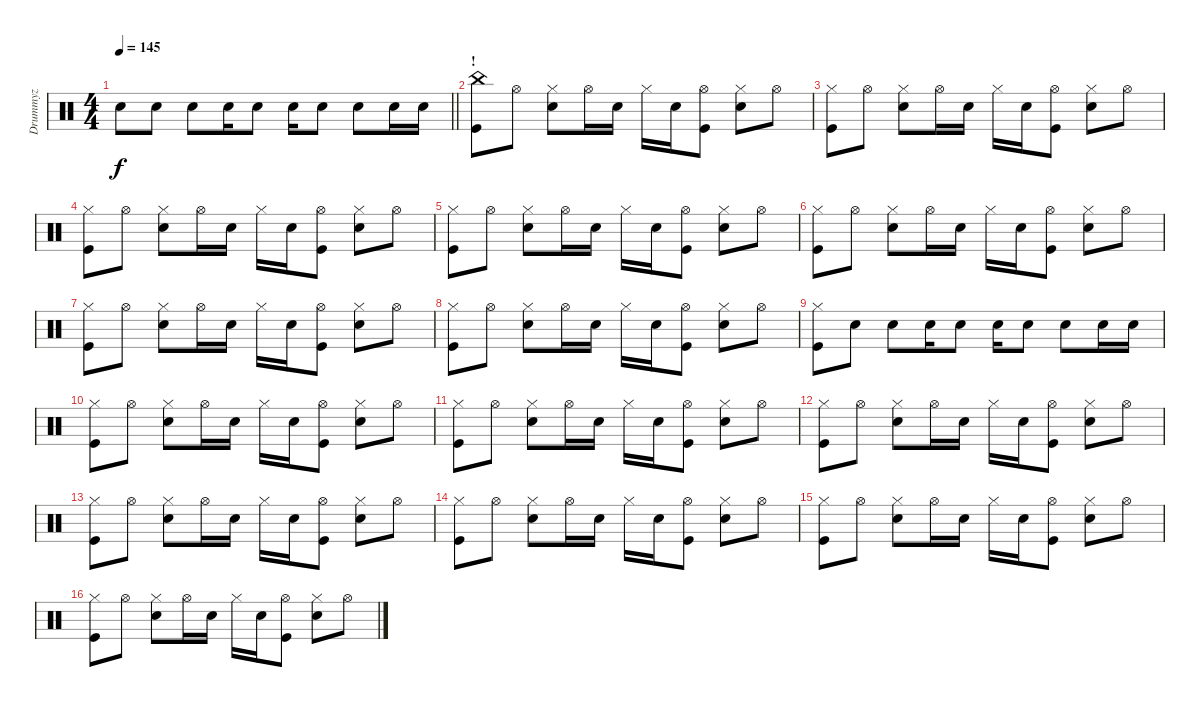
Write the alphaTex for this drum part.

\track ("Drummyz" "Drummyz") {instrument percussion}
\staff {score}
\articulation defaults
\ts (4 4)
\tempo 145
\clef neutral
\barLineRight lightlight
\ks c "Snare (hit) 2".8{dy f} "Snare (hit) 2".8 "Snare (hit) 2".8 "Snare (hit) 2".16 "Snare (hit) 2".8 "Snare (hit) 2".16 "Snare (hit) 2".8 "Snare (hit) 2".8 "Snare (hit) 2".16 "Snare (hit) 2".16
|
\section ("" "!")
("Kick (hit)" "China (hit)").8 "Hi-Hat (open)".8 ("Hi-Hat (closed)" "Snare (hit) 2").8 "Hi-Hat (open)".16 "Snare (hit) 2".16 "Hi-Hat (closed)".16 "Snare (hit) 2".16 ("Kick (hit)" "Hi-Hat (open)").8 ("Snare (hit) 2" "Hi-Hat (closed)").8 "Hi-Hat (open)".8 |
("Kick (hit)" "Hi-Hat (closed)").8 "Hi-Hat (open)".8 ("Hi-Hat (closed)" "Snare (hit) 2").8 "Hi-Hat (open)".16 "Snare (hit) 2".16 "Hi-Hat (closed)".16 "Snare (hit) 2".16 ("Kick (hit)" "Hi-Hat (open)").8 ("Snare (hit) 2" "Hi-Hat (closed)").8 "Hi-Hat (open)".8 |
("Kick (hit)" "Hi-Hat (closed)").8 "Hi-Hat (open)".8 ("Hi-Hat (closed)" "Snare (hit) 2").8 "Hi-Hat (open)".16 "Snare (hit) 2".16 "Hi-Hat (closed)".16 "Snare (hit) 2".16 ("Kick (hit)" "Hi-Hat (open)").8 ("Snare (hit) 2" "Hi-Hat (closed)").8 "Hi-Hat (open)".8 |
("Kick (hit)" "Hi-Hat (closed)").8 "Hi-Hat (open)".8 ("Hi-Hat (closed)" "Snare (hit) 2").8 "Hi-Hat (open)".16 "Snare (hit) 2".16 "Hi-Hat (closed)".16 "Snare (hit) 2".16 ("Kick (hit)" "Hi-Hat (open)").8 ("Snare (hit) 2" "Hi-Hat (closed)").8 "Hi-Hat (open)".8 |
("Kick (hit)" "Hi-Hat (closed)").8 "Hi-Hat (open)".8 ("Hi-Hat (closed)" "Snare (hit) 2").8 "Hi-Hat (open)".16 "Snare (hit) 2".16 "Hi-Hat (closed)".16 "Snare (hit) 2".16 ("Kick (hit)" "Hi-Hat (open)").8 ("Snare (hit) 2" "Hi-Hat (closed)").8 "Hi-Hat (open)".8 |
("Kick (hit)" "Hi-Hat (closed)").8 "Hi-Hat (open)".8 ("Hi-Hat (closed)" "Snare (hit) 2").8 "Hi-Hat (open)".16 "Snare (hit) 2".16 "Hi-Hat (closed)".16 "Snare (hit) 2".16 ("Kick (hit)" "Hi-Hat (open)").8 ("Snare (hit) 2" "Hi-Hat (closed)").8 "Hi-Hat (open)".8 |
("Kick (hit)" "Hi-Hat (closed)").8 "Hi-Hat (open)".8 ("Hi-Hat (closed)" "Snare (hit) 2").8 "Hi-Hat (open)".16 "Snare (hit) 2".16 "Hi-Hat (closed)".16 "Snare (hit) 2".16 ("Kick (hit)" "Hi-Hat (open)").8 ("Snare (hit) 2" "Hi-Hat (closed)").8 "Hi-Hat (open)".8 |
("Kick (hit)" "Hi-Hat (closed)").8 "Snare (hit) 2".8 "Snare (hit) 2".8 "Snare (hit) 2".16 "Snare (hit) 2".8 "Snare (hit) 2".16 "Snare (hit) 2".8 "Snare (hit) 2".8 "Snare (hit) 2".16 "Snare (hit) 2".16 |
("Kick (hit)" "Hi-Hat (closed)").8 "Hi-Hat (open)".8 ("Hi-Hat (closed)" "Snare (hit) 2").8 "Hi-Hat (open)".16 "Snare (hit) 2".16 "Hi-Hat (closed)".16 "Snare (hit) 2".16 ("Kick (hit)" "Hi-Hat (open)").8 ("Snare (hit) 2" "Hi-Hat (closed)").8 "Hi-Hat (open)".8 |
("Kick (hit)" "Hi-Hat (closed)").8 "Hi-Hat (open)".8 ("Hi-Hat (closed)" "Snare (hit) 2").8 "Hi-Hat (open)".16 "Snare (hit) 2".16 "Hi-Hat (closed)".16 "Snare (hit) 2".16 ("Kick (hit)" "Hi-Hat (open)").8 ("Snare (hit) 2" "Hi-Hat (closed)").8 "Hi-Hat (open)".8 |
("Kick (hit)" "Hi-Hat (closed)").8 "Hi-Hat (open)".8 ("Hi-Hat (closed)" "Snare (hit) 2").8 "Hi-Hat (open)".16 "Snare (hit) 2".16 "Hi-Hat (closed)".16 "Snare (hit) 2".16 ("Kick (hit)" "Hi-Hat (open)").8 ("Snare (hit) 2" "Hi-Hat (closed)").8 "Hi-Hat (open)".8 |
("Kick (hit)" "Hi-Hat (closed)").8 "Hi-Hat (open)".8 ("Hi-Hat (closed)" "Snare (hit) 2").8 "Hi-Hat (open)".16 "Snare (hit) 2".16 "Hi-Hat (closed)".16 "Snare (hit) 2".16 ("Kick (hit)" "Hi-Hat (open)").8 ("Snare (hit) 2" "Hi-Hat (closed)").8 "Hi-Hat (open)".8 |
("Kick (hit)" "Hi-Hat (closed)").8 "Hi-Hat (open)".8 ("Hi-Hat (closed)" "Snare (hit) 2").8 "Hi-Hat (open)".16 "Snare (hit) 2".16 "Hi-Hat (closed)".16 "Snare (hit) 2".16 ("Kick (hit)" "Hi-Hat (open)").8 ("Snare (hit) 2" "Hi-Hat (closed)").8 "Hi-Hat (open)".8 |
("Kick (hit)" "Hi-Hat (closed)").8 "Hi-Hat (open)".8 ("Hi-Hat (closed)" "Snare (hit) 2").8 "Hi-Hat (open)".16 "Snare (hit) 2".16 "Hi-Hat (closed)".16 "Snare (hit) 2".16 ("Kick (hit)" "Hi-Hat (open)").8 ("Snare (hit) 2" "Hi-Hat (closed)").8 "Hi-Hat (open)".8 |
("Kick (hit)" "Hi-Hat (closed)").8 "Hi-Hat (open)".8 ("Hi-Hat (closed)" "Snare (hit) 2").8 "Hi-Hat (open)".16 "Snare (hit) 2".16 "Hi-Hat (closed)".16 "Snare (hit) 2".16 ("Kick (hit)" "Hi-Hat (open)").8 ("Snare (hit) 2" "Hi-Hat (closed)").8 "Hi-Hat (open)".8
